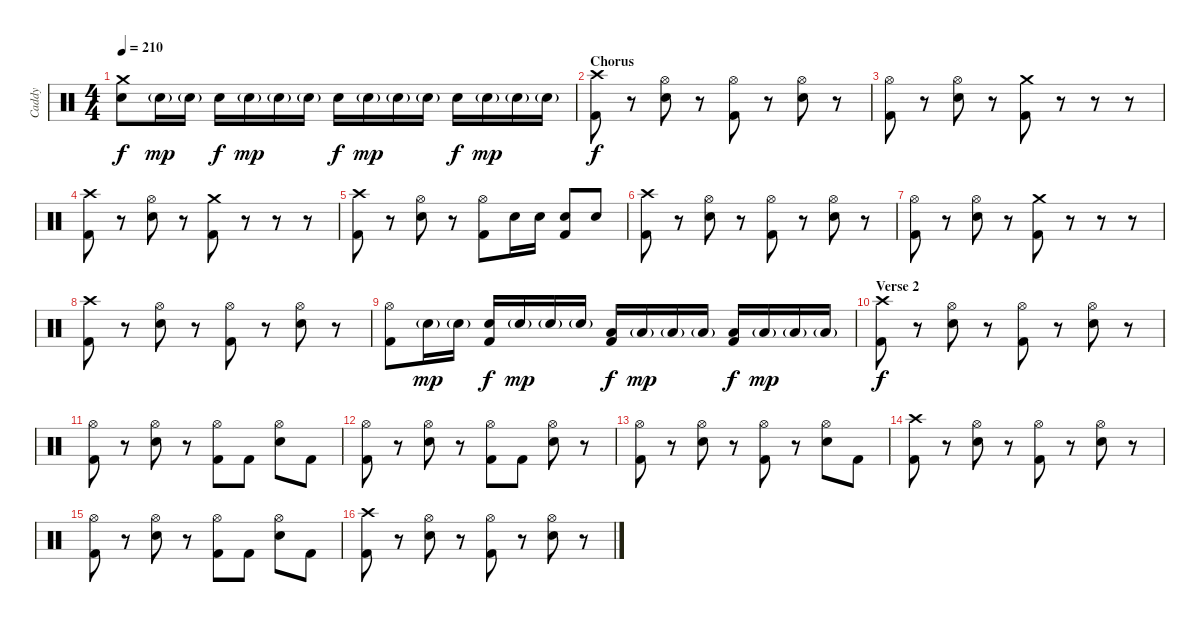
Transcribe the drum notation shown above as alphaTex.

\track ("Caddy" "Caddy") {instrument percussion}
\staff {score}
\articulation defaults
\ts (4 4)
\tempo 210
\clef neutral
\ks c
("Crash medium (hit)" "Electric Snare (hit)").8{dy f} "Electric Snare (hit)"{g}.16{dy mp} "Electric Snare (hit)"{g}.16 "Electric Snare (hit)".16{dy f} "Electric Snare (hit)"{g}.16{dy mp} "Electric Snare (hit)"{g}.16 "Electric Snare (hit)"{g}.16 "Electric Snare (hit)".16{dy f} "Electric Snare (hit)"{g}.16{dy mp} "Electric Snare (hit)"{g}.16 "Electric Snare (hit)"{g}.16 "Electric Snare (hit)".16{dy f} "Electric Snare (hit)"{g}.16{dy mp} "Electric Snare (hit)"{g}.16 "Electric Snare (hit)"{g}.16 |
\section ("" "Chorus")
("Crash high (hit)" "Kick (hit) 2").8{dy f} r.8 ("Hi-Hat (open)" "Electric Snare (hit)").8 r.8 ("Hi-Hat (open)" "Kick (hit) 2").8 r.8 ("Hi-Hat (open)" "Electric Snare (hit)").8 r.8 |
("Hi-Hat (open)" "Kick (hit) 2").8 r.8 ("Hi-Hat (open)" "Electric Snare (hit)").8 r.8 ("Crash medium (hit)" "Kick (hit) 2").8 r.8 r.8 r.8 |
("Crash high (hit)" "Kick (hit) 2").8 r.8 ("Hi-Hat (open)" "Electric Snare (hit)").8 r.8 ("Crash medium (hit)" "Kick (hit) 2").8 r.8 r.8 r.8 |
("Crash high (hit)" "Kick (hit) 2").8 r.8 ("Hi-Hat (open)" "Electric Snare (hit)").8 r.8 ("Hi-Hat (open)" "Kick (hit) 2").8 "Electric Snare (hit)".16 "Electric Snare (hit)".16 ("Electric Snare (hit)" "Kick (hit) 2").8 "Electric Snare (hit)".8 |
("Crash high (hit)" "Kick (hit) 2").8 r.8 ("Hi-Hat (open)" "Electric Snare (hit)").8 r.8 ("Hi-Hat (open)" "Kick (hit) 2").8 r.8 ("Hi-Hat (open)" "Electric Snare (hit)").8 r.8 |
("Hi-Hat (open)" "Kick (hit) 2").8 r.8 ("Hi-Hat (open)" "Electric Snare (hit)").8 r.8 ("Crash medium (hit)" "Kick (hit) 2").8 r.8 r.8 r.8 |
("Crash high (hit)" "Kick (hit) 2").8 r.8 ("Hi-Hat (open)" "Electric Snare (hit)").8 r.8 ("Hi-Hat (open)" "Kick (hit) 2").8 r.8 ("Hi-Hat (open)" "Electric Snare (hit)").8 r.8 |
("Hi-Hat (open)" "Kick (hit) 2").8 "Electric Snare (hit)"{g}.16{dy mp} "Electric Snare (hit)"{g}.16 ("Electric Snare (hit)" "Kick (hit) 2").16{dy f} "Electric Snare (hit)"{g}.16{dy mp} "Electric Snare (hit)"{g}.16 "Electric Snare (hit)"{g}.16 ("Low Tom (hit)" "Kick (hit) 2").16{dy f} "Low Tom (hit)"{g}.16{dy mp} "Low Tom (hit)"{g}.16 "Low Tom (hit)"{g}.16 ("Low Floor Tom (hit)" "Kick (hit) 2").16{dy f} "Low Floor Tom (hit)"{g}.16{dy mp} "Low Floor Tom (hit)"{g}.16 "Low Floor Tom (hit)"{g}.16 |
\section ("" "Verse 2")
("Crash high (hit)" "Kick (hit) 2").8{dy f} r.8 ("Hi-Hat (open)" "Electric Snare (hit)").8 r.8 ("Hi-Hat (open)" "Kick (hit) 2").8 r.8 ("Hi-Hat (open)" "Electric Snare (hit)").8 r.8 |
("Hi-Hat (open)" "Kick (hit) 2").8 r.8 ("Hi-Hat (open)" "Electric Snare (hit)").8 r.8 ("Hi-Hat (open)" "Kick (hit) 2").8 "Kick (hit) 2".8 ("Hi-Hat (open)" "Electric Snare (hit)").8 "Kick (hit) 2".8 |
("Hi-Hat (open)" "Kick (hit) 2").8 r.8 ("Hi-Hat (open)" "Electric Snare (hit)").8 r.8 ("Hi-Hat (open)" "Kick (hit) 2").8 "Kick (hit) 2".8 ("Hi-Hat (open)" "Electric Snare (hit)").8 r.8 |
("Hi-Hat (open)" "Kick (hit) 2").8 r.8 ("Hi-Hat (open)" "Electric Snare (hit)").8 r.8 ("Hi-Hat (open)" "Kick (hit) 2").8 r.8 ("Hi-Hat (open)" "Electric Snare (hit)").8 "Kick (hit) 2".8 |
("Crash high (hit)" "Kick (hit) 2").8 r.8 ("Hi-Hat (open)" "Electric Snare (hit)").8 r.8 ("Hi-Hat (open)" "Kick (hit) 2").8 r.8 ("Hi-Hat (open)" "Electric Snare (hit)").8 r.8 |
("Hi-Hat (open)" "Kick (hit) 2").8 r.8 ("Hi-Hat (open)" "Electric Snare (hit)").8 r.8 ("Hi-Hat (open)" "Kick (hit) 2").8 "Kick (hit) 2".8 ("Hi-Hat (open)" "Electric Snare (hit)").8 "Kick (hit) 2".8 |
("Crash high (hit)" "Kick (hit) 2").8 r.8 ("Hi-Hat (open)" "Electric Snare (hit)").8 r.8 ("Hi-Hat (open)" "Kick (hit) 2").8 r.8 ("Hi-Hat (open)" "Electric Snare (hit)").8 r.8
